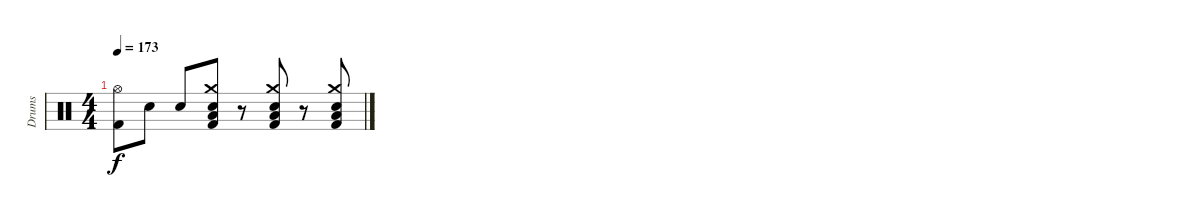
\track ("Drums" "Drums") {instrument percussion}
\staff {score}
\articulation defaults
\ts (4 4)
\tempo 173
\clef neutral
\ks c
("Hi-Hat (open)" "Kick (hit) 2").8{dy f} "Snare (hit) 2".8 "Snare (hit) 2".8 ("Crash medium (hit)" "Low Floor Tom (hit)" "Snare (hit) 2" "Kick (hit) 2").8 r.8 ("Crash medium (hit)" "Low Floor Tom (hit)" "Snare (hit) 2" "Kick (hit) 2").8 r.8 ("Crash medium (hit)" "Low Floor Tom (hit)" "Snare (hit) 2" "Kick (hit) 2").8
